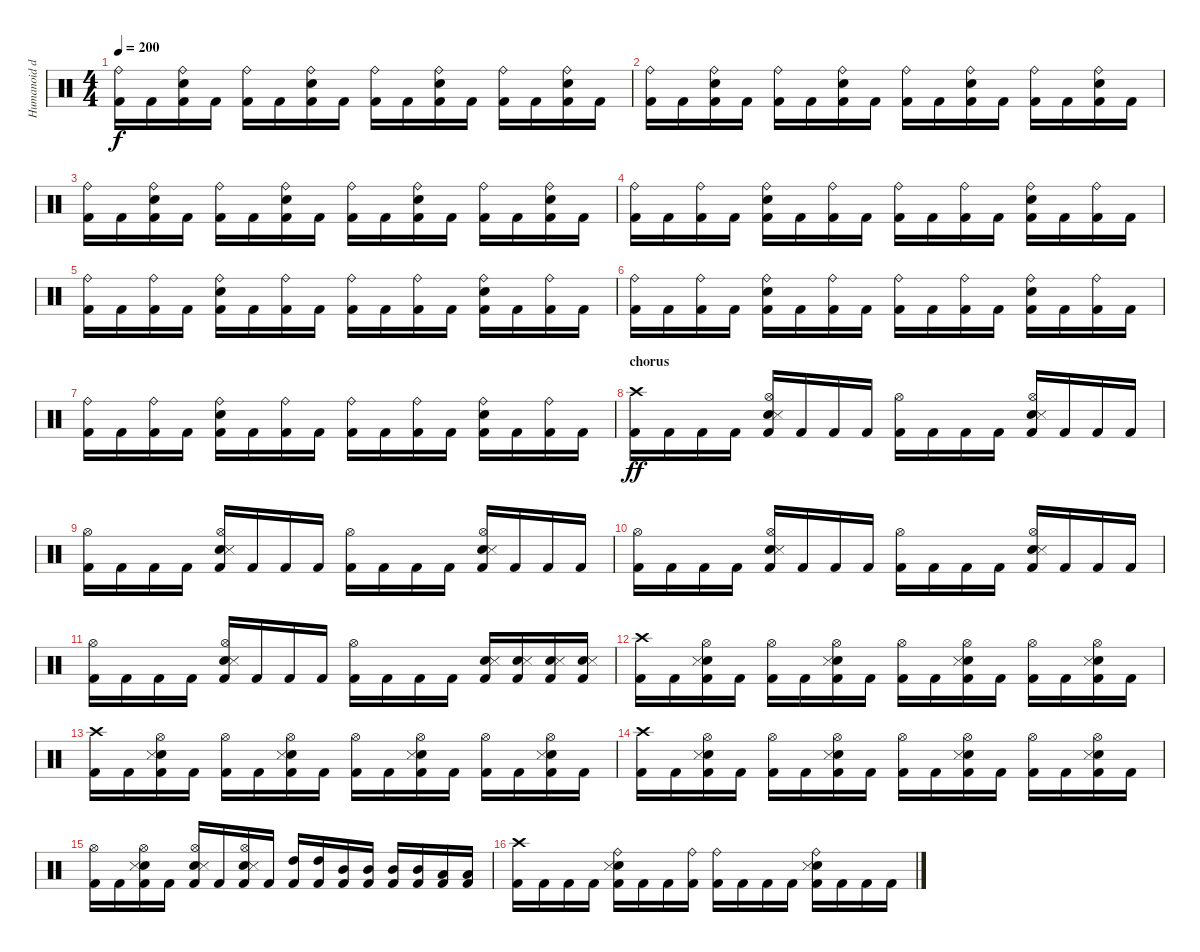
\track ("Humanoid drum machine" "Humanoid d") {instrument percussion}
\staff {score}
\articulation defaults
\ts (4 4)
\tempo 200
\clef neutral
\ks c
("Ride (bell)" "Kick (hit) 2").16{dy f} "Kick (hit) 2".16 ("Ride (bell)" "Electric Snare (hit)" "Kick (hit) 2").16 "Kick (hit) 2".16 ("Ride (bell)" "Kick (hit) 2").16 "Kick (hit) 2".16 ("Ride (bell)" "Electric Snare (hit)" "Kick (hit) 2").16 "Kick (hit) 2".16 ("Ride (bell)" "Kick (hit) 2").16 "Kick (hit) 2".16 ("Ride (bell)" "Electric Snare (hit)" "Kick (hit) 2").16 "Kick (hit) 2".16 ("Ride (bell)" "Kick (hit) 2").16 "Kick (hit) 2".16 ("Ride (bell)" "Electric Snare (hit)" "Kick (hit) 2").16 "Kick (hit) 2".16 |
("Ride (bell)" "Kick (hit) 2").16 "Kick (hit) 2".16 ("Ride (bell)" "Electric Snare (hit)" "Kick (hit) 2").16 "Kick (hit) 2".16 ("Ride (bell)" "Kick (hit) 2").16 "Kick (hit) 2".16 ("Ride (bell)" "Electric Snare (hit)" "Kick (hit) 2").16 "Kick (hit) 2".16 ("Ride (bell)" "Kick (hit) 2").16 "Kick (hit) 2".16 ("Ride (bell)" "Electric Snare (hit)" "Kick (hit) 2").16 "Kick (hit) 2".16 ("Ride (bell)" "Kick (hit) 2").16 "Kick (hit) 2".16 ("Ride (bell)" "Electric Snare (hit)" "Kick (hit) 2").16 "Kick (hit) 2".16 |
("Ride (bell)" "Kick (hit) 2").16 "Kick (hit) 2".16 ("Ride (bell)" "Electric Snare (hit)" "Kick (hit) 2").16 "Kick (hit) 2".16 ("Ride (bell)" "Kick (hit) 2").16 "Kick (hit) 2".16 ("Ride (bell)" "Electric Snare (hit)" "Kick (hit) 2").16 "Kick (hit) 2".16 ("Ride (bell)" "Kick (hit) 2").16 "Kick (hit) 2".16 ("Ride (bell)" "Electric Snare (hit)" "Kick (hit) 2").16 "Kick (hit) 2".16 ("Ride (bell)" "Kick (hit) 2").16 "Kick (hit) 2".16 ("Ride (bell)" "Electric Snare (hit)" "Kick (hit) 2").16 "Kick (hit) 2".16 |
("Ride (bell)" "Kick (hit) 2").16 "Kick (hit) 2".16 ("Ride (bell)" "Kick (hit) 2").16 "Kick (hit) 2".16 ("Ride (bell)" "Electric Snare (hit)" "Kick (hit) 2").16 "Kick (hit) 2".16 ("Ride (bell)" "Kick (hit) 2").16 "Kick (hit) 2".16 ("Ride (bell)" "Kick (hit) 2").16 "Kick (hit) 2".16 ("Ride (bell)" "Kick (hit) 2").16 "Kick (hit) 2".16 ("Ride (bell)" "Electric Snare (hit)" "Kick (hit) 2").16 "Kick (hit) 2".16 ("Ride (bell)" "Kick (hit) 2").16 "Kick (hit) 2".16 |
("Ride (bell)" "Kick (hit) 2").16 "Kick (hit) 2".16 ("Ride (bell)" "Kick (hit) 2").16 "Kick (hit) 2".16 ("Ride (bell)" "Electric Snare (hit)" "Kick (hit) 2").16 "Kick (hit) 2".16 ("Ride (bell)" "Kick (hit) 2").16 "Kick (hit) 2".16 ("Ride (bell)" "Kick (hit) 2").16 "Kick (hit) 2".16 ("Ride (bell)" "Kick (hit) 2").16 "Kick (hit) 2".16 ("Ride (bell)" "Electric Snare (hit)" "Kick (hit) 2").16 "Kick (hit) 2".16 ("Ride (bell)" "Kick (hit) 2").16 "Kick (hit) 2".16 |
("Ride (bell)" "Kick (hit) 2").16 "Kick (hit) 2".16 ("Ride (bell)" "Kick (hit) 2").16 "Kick (hit) 2".16 ("Ride (bell)" "Electric Snare (hit)" "Kick (hit) 2").16 "Kick (hit) 2".16 ("Ride (bell)" "Kick (hit) 2").16 "Kick (hit) 2".16 ("Ride (bell)" "Kick (hit) 2").16 "Kick (hit) 2".16 ("Ride (bell)" "Kick (hit) 2").16 "Kick (hit) 2".16 ("Ride (bell)" "Electric Snare (hit)" "Kick (hit) 2").16 "Kick (hit) 2".16 ("Ride (bell)" "Kick (hit) 2").16 "Kick (hit) 2".16 |
("Ride (bell)" "Kick (hit) 2").16 "Kick (hit) 2".16 ("Ride (bell)" "Kick (hit) 2").16 "Kick (hit) 2".16 ("Ride (bell)" "Electric Snare (hit)" "Kick (hit) 2").16 "Kick (hit) 2".16 ("Ride (bell)" "Kick (hit) 2").16 "Kick (hit) 2".16 ("Ride (bell)" "Kick (hit) 2").16 "Kick (hit) 2".16 ("Ride (bell)" "Kick (hit) 2").16 "Kick (hit) 2".16 ("Ride (bell)" "Electric Snare (hit)" "Kick (hit) 2").16 "Kick (hit) 2".16 ("Ride (bell)" "Kick (hit) 2").16 "Kick (hit) 2".16 |
\section ("" "chorus")
("Crash high (hit)" "Kick (hit) 2").16{dy ff} "Kick (hit) 2".16 "Kick (hit) 2".16 "Kick (hit) 2".16 ("Hi-Hat (open)" "Electric Snare (hit)" "Snare (side stick) 3" "Kick (hit) 2").16 "Kick (hit) 2".16 "Kick (hit) 2".16 "Kick (hit) 2".16 ("Hi-Hat (open)" "Kick (hit) 2").16 "Kick (hit) 2".16 "Kick (hit) 2".16 "Kick (hit) 2".16 ("Hi-Hat (open)" "Electric Snare (hit)" "Snare (side stick) 3" "Kick (hit) 2").16 "Kick (hit) 2".16 "Kick (hit) 2".16 "Kick (hit) 2".16 |
("Hi-Hat (open)" "Kick (hit) 2").16 "Kick (hit) 2".16 "Kick (hit) 2".16 "Kick (hit) 2".16 ("Hi-Hat (open)" "Electric Snare (hit)" "Snare (side stick) 3" "Kick (hit) 2").16 "Kick (hit) 2".16 "Kick (hit) 2".16 "Kick (hit) 2".16 ("Hi-Hat (open)" "Kick (hit) 2").16 "Kick (hit) 2".16 "Kick (hit) 2".16 "Kick (hit) 2".16 ("Hi-Hat (open)" "Electric Snare (hit)" "Snare (side stick) 3" "Kick (hit) 2").16 "Kick (hit) 2".16 "Kick (hit) 2".16 "Kick (hit) 2".16 |
("Hi-Hat (open)" "Kick (hit) 2").16 "Kick (hit) 2".16 "Kick (hit) 2".16 "Kick (hit) 2".16 ("Hi-Hat (open)" "Electric Snare (hit)" "Snare (side stick) 3" "Kick (hit) 2").16 "Kick (hit) 2".16 "Kick (hit) 2".16 "Kick (hit) 2".16 ("Hi-Hat (open)" "Kick (hit) 2").16 "Kick (hit) 2".16 "Kick (hit) 2".16 "Kick (hit) 2".16 ("Hi-Hat (open)" "Electric Snare (hit)" "Snare (side stick) 3" "Kick (hit) 2").16 "Kick (hit) 2".16 "Kick (hit) 2".16 "Kick (hit) 2".16 |
("Hi-Hat (open)" "Kick (hit) 2").16 "Kick (hit) 2".16 "Kick (hit) 2".16 "Kick (hit) 2".16 ("Hi-Hat (open)" "Electric Snare (hit)" "Snare (side stick) 3" "Kick (hit) 2").16 "Kick (hit) 2".16 "Kick (hit) 2".16 "Kick (hit) 2".16 ("Hi-Hat (open)" "Kick (hit) 2").16 "Kick (hit) 2".16 "Kick (hit) 2".16 "Kick (hit) 2".16 ("Electric Snare (hit)" "Snare (side stick) 3" "Kick (hit) 2").16 ("Electric Snare (hit)" "Snare (side stick) 3" "Kick (hit) 2").16 ("Electric Snare (hit)" "Snare (side stick) 3" "Kick (hit) 2").16 ("Electric Snare (hit)" "Snare (side stick) 3" "Kick (hit) 2").16 |
("Crash high (hit)" "Kick (hit) 2").16 "Kick (hit) 2".16 ("Hi-Hat (open)" "Electric Snare (hit)" "Snare (side stick) 3" "Kick (hit) 2").16 "Kick (hit) 2".16 ("Hi-Hat (open)" "Kick (hit) 2").16 "Kick (hit) 2".16 ("Hi-Hat (open)" "Electric Snare (hit)" "Snare (side stick) 3" "Kick (hit) 2").16 "Kick (hit) 2".16 ("Hi-Hat (open)" "Kick (hit) 2").16 "Kick (hit) 2".16 ("Hi-Hat (open)" "Electric Snare (hit)" "Snare (side stick) 3" "Kick (hit) 2").16 "Kick (hit) 2".16 ("Hi-Hat (open)" "Kick (hit) 2").16 "Kick (hit) 2".16 ("Hi-Hat (open)" "Electric Snare (hit)" "Snare (side stick) 3" "Kick (hit) 2").16 "Kick (hit) 2".16 |
("Crash high (hit)" "Kick (hit) 2").16 "Kick (hit) 2".16 ("Hi-Hat (open)" "Electric Snare (hit)" "Snare (side stick) 3" "Kick (hit) 2").16 "Kick (hit) 2".16 ("Hi-Hat (open)" "Kick (hit) 2").16 "Kick (hit) 2".16 ("Hi-Hat (open)" "Electric Snare (hit)" "Snare (side stick) 3" "Kick (hit) 2").16 "Kick (hit) 2".16 ("Hi-Hat (open)" "Kick (hit) 2").16 "Kick (hit) 2".16 ("Hi-Hat (open)" "Electric Snare (hit)" "Snare (side stick) 3" "Kick (hit) 2").16 "Kick (hit) 2".16 ("Hi-Hat (open)" "Kick (hit) 2").16 "Kick (hit) 2".16 ("Hi-Hat (open)" "Electric Snare (hit)" "Snare (side stick) 3" "Kick (hit) 2").16 "Kick (hit) 2".16 |
("Crash high (hit)" "Kick (hit) 2").16 "Kick (hit) 2".16 ("Hi-Hat (open)" "Electric Snare (hit)" "Snare (side stick) 3" "Kick (hit) 2").16 "Kick (hit) 2".16 ("Hi-Hat (open)" "Kick (hit) 2").16 "Kick (hit) 2".16 ("Hi-Hat (open)" "Electric Snare (hit)" "Snare (side stick) 3" "Kick (hit) 2").16 "Kick (hit) 2".16 ("Hi-Hat (open)" "Kick (hit) 2").16 "Kick (hit) 2".16 ("Hi-Hat (open)" "Electric Snare (hit)" "Snare (side stick) 3" "Kick (hit) 2").16 "Kick (hit) 2".16 ("Hi-Hat (open)" "Kick (hit) 2").16 "Kick (hit) 2".16 ("Hi-Hat (open)" "Electric Snare (hit)" "Snare (side stick) 3" "Kick (hit) 2").16 "Kick (hit) 2".16 |
("Hi-Hat (open)" "Kick (hit) 2").16 "Kick (hit) 2".16 ("Hi-Hat (open)" "Electric Snare (hit)" "Snare (side stick) 3" "Kick (hit) 2").16 "Kick (hit) 2".16 ("Hi-Hat (open)" "Electric Snare (hit)" "Snare (side stick) 3" "Kick (hit) 2").16 "Kick (hit) 2".16 ("Hi-Hat (open)" "Electric Snare (hit)" "Snare (side stick) 3" "Kick (hit) 2").16 "Kick (hit) 2".16 ("High Tom (hit)" "Kick (hit) 2").16 ("High Tom (hit)" "Kick (hit) 2").16 ("Mid Tom (hit)" "Kick (hit) 2").16 ("Mid Tom (hit)" "Kick (hit) 2").16 ("Mid Tom (hit)" "Kick (hit) 2").16 ("Mid Tom (hit)" "Kick (hit) 2").16 ("Low Tom (hit)" "Kick (hit) 2").16 ("Low Tom (hit)" "Kick (hit) 2").16 |
("Crash high (hit)" "Kick (hit) 2").16 "Kick (hit) 2".16 "Kick (hit) 2".16 "Kick (hit) 2".16 ("Ride (bell)" "Electric Snare (hit)" "Snare (side stick) 3" "Kick (hit) 2").16 "Kick (hit) 2".16 "Kick (hit) 2".16 ("Ride (bell)" "Kick (hit) 2").16 ("Ride (bell)" "Kick (hit) 2").16 "Kick (hit) 2".16 "Kick (hit) 2".16 "Kick (hit) 2".16 ("Ride (bell)" "Electric Snare (hit)" "Snare (side stick) 3" "Kick (hit) 2").16 "Kick (hit) 2".16 "Kick (hit) 2".16 "Kick (hit) 2".16
